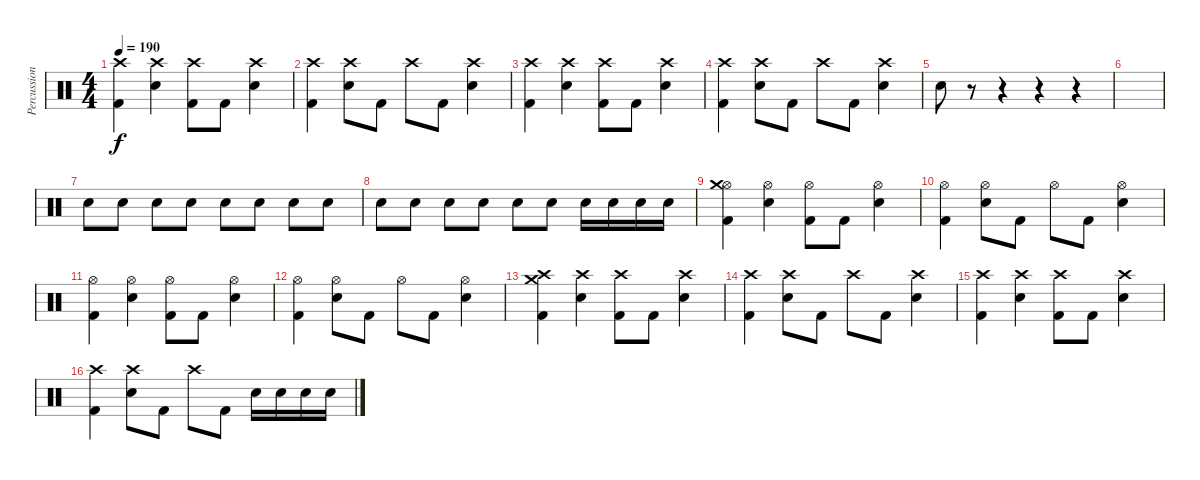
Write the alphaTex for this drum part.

\track ("Percussioni" "Percussion") {instrument percussion}
\staff {score}
\articulation defaults
\ts (4 4)
\tempo 190
\clef neutral
\ks c
("Crash high (hit)" "Kick (hit) 2").4{dy f} ("Crash high (hit)" "Snare (hit) 2").4 ("Crash high (hit)" "Kick (hit) 2").8 "Kick (hit) 2".8 ("Crash high (hit)" "Snare (hit) 2").4 |
("Crash high (hit)" "Kick (hit) 2").4 ("Crash high (hit)" "Snare (hit) 2").8 "Kick (hit) 2".8 "Crash high (hit)".8 "Kick (hit) 2".8 ("Crash high (hit)" "Snare (hit) 2").4 |
("Crash high (hit)" "Kick (hit) 2").4 ("Crash high (hit)" "Snare (hit) 2").4 ("Crash high (hit)" "Kick (hit) 2").8 "Kick (hit) 2".8 ("Crash high (hit)" "Snare (hit) 2").4 |
("Crash high (hit)" "Kick (hit) 2").4 ("Crash high (hit)" "Snare (hit) 2").8 "Kick (hit) 2".8 "Crash high (hit)".8 "Kick (hit) 2".8 ("Crash high (hit)" "Snare (hit) 2").4 |
"Snare (hit) 2".8 r.8 r.4 r.4 r.4 |
|
"Snare (hit) 2".8 "Snare (hit) 2".8 "Snare (hit) 2".8 "Snare (hit) 2".8 "Snare (hit) 2".8 "Snare (hit) 2".8 "Snare (hit) 2".8 "Snare (hit) 2".8 |
"Snare (hit) 2".8 "Snare (hit) 2".8 "Snare (hit) 2".8 "Snare (hit) 2".8 "Snare (hit) 2".8 "Snare (hit) 2".8 "Snare (hit) 2".16 "Snare (hit) 2".16 "Snare (hit) 2".16 "Snare (hit) 2".16 |
("Hi-Hat (open)" "Kick (hit) 2" "Crash medium (hit)").4 ("Hi-Hat (open)" "Snare (hit) 2").4 ("Hi-Hat (open)" "Kick (hit) 2").8 "Kick (hit) 2".8 ("Hi-Hat (open)" "Snare (hit) 2").4 |
("Hi-Hat (open)" "Kick (hit) 2").4 ("Hi-Hat (open)" "Snare (hit) 2").8 "Kick (hit) 2".8 "Hi-Hat (open)".8 "Kick (hit) 2".8 ("Hi-Hat (open)" "Snare (hit) 2").4 |
("Hi-Hat (open)" "Kick (hit) 2").4 ("Hi-Hat (open)" "Snare (hit) 2").4 ("Hi-Hat (open)" "Kick (hit) 2").8 "Kick (hit) 2".8 ("Hi-Hat (open)" "Snare (hit) 2").4 |
("Hi-Hat (open)" "Kick (hit) 2").4 ("Hi-Hat (open)" "Snare (hit) 2").8 "Kick (hit) 2".8 "Hi-Hat (open)".8 "Kick (hit) 2".8 ("Hi-Hat (open)" "Snare (hit) 2").4 |
("Crash high (hit)" "Kick (hit) 2" "Crash medium (hit)").4 ("Crash high (hit)" "Snare (hit) 2").4 ("Crash high (hit)" "Kick (hit) 2").8 "Kick (hit) 2".8 ("Crash high (hit)" "Snare (hit) 2").4 |
("Crash high (hit)" "Kick (hit) 2").4 ("Crash high (hit)" "Snare (hit) 2").8 "Kick (hit) 2".8 "Crash high (hit)".8 "Kick (hit) 2".8 ("Crash high (hit)" "Snare (hit) 2").4 |
("Crash high (hit)" "Kick (hit) 2").4 ("Crash high (hit)" "Snare (hit) 2").4 ("Crash high (hit)" "Kick (hit) 2").8 "Kick (hit) 2".8 ("Crash high (hit)" "Snare (hit) 2").4 |
("Crash high (hit)" "Kick (hit) 2").4 ("Crash high (hit)" "Snare (hit) 2").8 "Kick (hit) 2".8 "Crash high (hit)".8 "Kick (hit) 2".8 "Snare (hit) 2".16 "Snare (hit) 2".16 "Snare (hit) 2".16 "Snare (hit) 2".16
